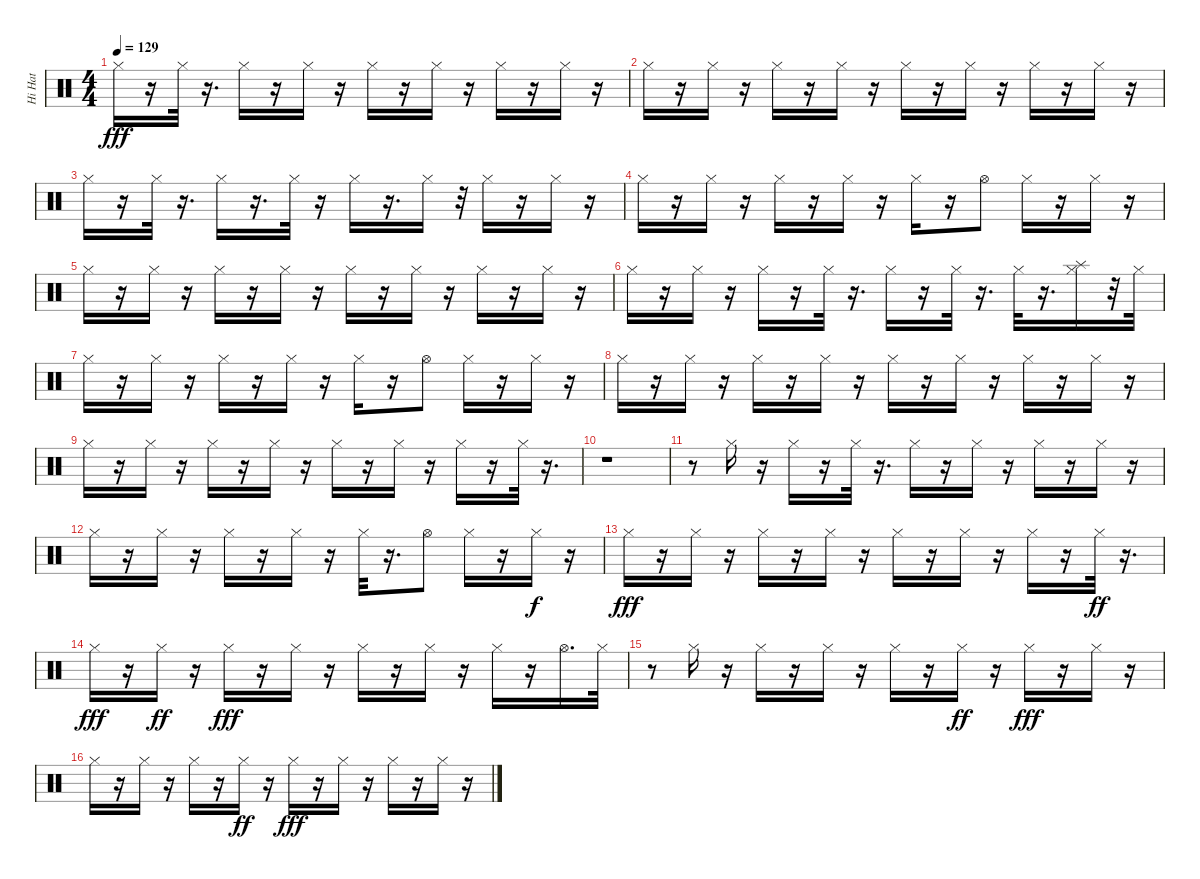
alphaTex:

\track ("Hi Hat" "Hi Hat") {instrument percussion}
\staff {score}
\articulation defaults
\ts (4 4)
\tempo 129
\clef neutral
\ks c "Hi-Hat (closed)".16{dy fff}
r.16 "Hi-Hat (closed)".32 r.16{d} "Hi-Hat (closed)".16 r.16 "Hi-Hat (closed)".16 r.16 "Hi-Hat (closed)".16 r.16 "Hi-Hat (closed)".16 r.16 "Hi-Hat (closed)".16 r.16 "Hi-Hat (closed)".16 r.16 |
"Hi-Hat (closed)".16 r.16 "Hi-Hat (closed)".16 r.16 "Hi-Hat (closed)".16 r.16 "Hi-Hat (closed)".16 r.16 "Hi-Hat (closed)".16 r.16 "Hi-Hat (closed)".16 r.16 "Hi-Hat (closed)".16 r.16 "Hi-Hat (closed)".16 r.16 |
"Hi-Hat (closed)".16 r.16 "Hi-Hat (closed)".32 r.16{d} "Hi-Hat (closed)".16 r.16{d} "Hi-Hat (closed)".32 r.16 "Hi-Hat (closed)".16 r.16{d} "Hi-Hat (closed)".16 r.32 "Hi-Hat (closed)".16 r.16 "Hi-Hat (closed)".16 r.16 |
"Hi-Hat (closed)".16 r.16 "Hi-Hat (closed)".16 r.16 "Hi-Hat (closed)".16 r.16 "Hi-Hat (closed)".16 r.16 "Hi-Hat (closed)".16 r.16 "Hi-Hat (open)".8 "Hi-Hat (closed)".16 r.16 "Hi-Hat (closed)".16 r.16 |
"Hi-Hat (closed)".16 r.16 "Hi-Hat (closed)".16 r.16 "Hi-Hat (closed)".16 r.16 "Hi-Hat (closed)".16 r.16 "Hi-Hat (closed)".16 r.16 "Hi-Hat (closed)".16 r.16 "Hi-Hat (closed)".16 r.16 "Hi-Hat (closed)".16 r.16 |
"Hi-Hat (closed)".16 r.16 "Hi-Hat (closed)".16 r.16 "Hi-Hat (closed)".16 r.16 "Hi-Hat (closed)".32 r.16{d} "Hi-Hat (closed)".16 r.16 "Hi-Hat (closed)".32 r.16{d} "Hi-Hat (closed)".32 r.16{d} ("Hi-Hat (closed)" "Splash (hit)").16 r.32 "Hi-Hat (closed)".32 |
"Hi-Hat (closed)".16 r.16 "Hi-Hat (closed)".16 r.16 "Hi-Hat (closed)".16 r.16 "Hi-Hat (closed)".16 r.16 "Hi-Hat (closed)".16 r.16 "Hi-Hat (open)".8 "Hi-Hat (closed)".16 r.16 "Hi-Hat (closed)".16 r.16 |
"Hi-Hat (closed)".16 r.16 "Hi-Hat (closed)".16 r.16 "Hi-Hat (closed)".16 r.16 "Hi-Hat (closed)".16 r.16 "Hi-Hat (closed)".16 r.16 "Hi-Hat (closed)".16 r.16 "Hi-Hat (closed)".16 r.16 "Hi-Hat (closed)".16 r.16 |
"Hi-Hat (closed)".16 r.16 "Hi-Hat (closed)".16 r.16 "Hi-Hat (closed)".16 r.16 "Hi-Hat (closed)".16 r.16 "Hi-Hat (closed)".16 r.16 "Hi-Hat (closed)".16 r.16 "Hi-Hat (closed)".16 r.16 "Hi-Hat (closed)".32 r.16{d} |
r.1 |
r.8 "Hi-Hat (closed)".16 r.16 "Hi-Hat (closed)".16 r.16 "Hi-Hat (closed)".32 r.16{d} "Hi-Hat (closed)".16 r.16 "Hi-Hat (closed)".16 r.16 "Hi-Hat (closed)".16 r.16 "Hi-Hat (closed)".16 r.16 |
"Hi-Hat (closed)".16 r.16 "Hi-Hat (closed)".16 r.16 "Hi-Hat (closed)".16 r.16 "Hi-Hat (closed)".16 r.16 "Hi-Hat (closed)".32 r.16{d} "Hi-Hat (open)".8 "Hi-Hat (closed)".16 r.16 "Hi-Hat (closed)".16{dy f} r.16 |
"Hi-Hat (closed)".16{dy fff} r.16 "Hi-Hat (closed)".16 r.16 "Hi-Hat (closed)".16 r.16 "Hi-Hat (closed)".16 r.16 "Hi-Hat (closed)".16 r.16 "Hi-Hat (closed)".16 r.16 "Hi-Hat (closed)".16 r.16 "Hi-Hat (closed)".32{dy ff} r.16{d} |
"Hi-Hat (closed)".16{dy fff} r.16 "Hi-Hat (closed)".16{dy ff} r.16 "Hi-Hat (closed)".16{dy fff} r.16 "Hi-Hat (closed)".16 r.16 "Hi-Hat (closed)".16 r.16 "Hi-Hat (closed)".16 r.16 "Hi-Hat (closed)".16 r.16 "Hi-Hat (open)".16{d} "Hi-Hat (closed)".32 |
r.8 "Hi-Hat (closed)".16 r.16 "Hi-Hat (closed)".16 r.16 "Hi-Hat (closed)".16 r.16 "Hi-Hat (closed)".16 r.16 "Hi-Hat (closed)".16{dy ff} r.16 "Hi-Hat (closed)".16{dy fff} r.16 "Hi-Hat (closed)".16 r.16 |
"Hi-Hat (closed)".16 r.16 "Hi-Hat (closed)".16 r.16 "Hi-Hat (closed)".16 r.16 "Hi-Hat (closed)".16{dy ff} r.16 "Hi-Hat (closed)".16{dy fff} r.16 "Hi-Hat (closed)".16 r.16 "Hi-Hat (closed)".16 r.16 "Hi-Hat (closed)".16 r.16
